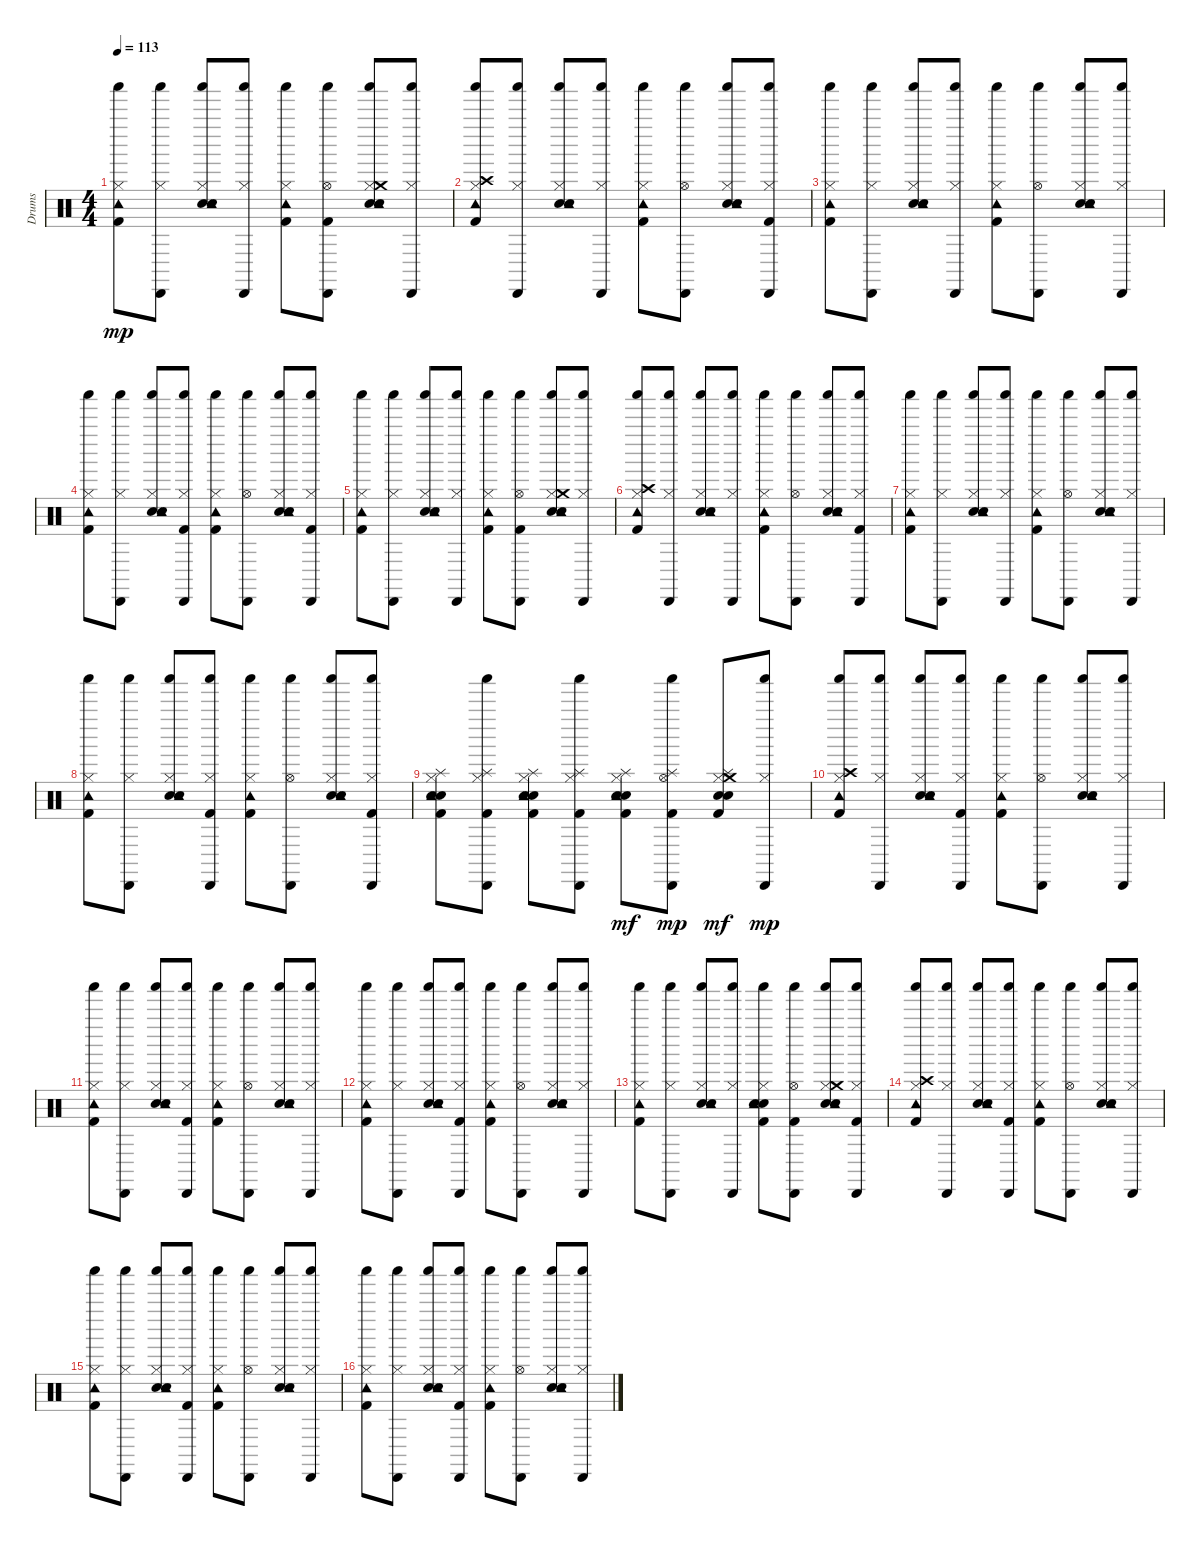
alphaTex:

\track ("Drums" "Drums") {instrument percussion}
\staff {score}
\articulation defaults
\ts (4 4)
\tempo 113
\clef neutral
\ks c
("Kick (hit) 2" "Hi-Hat (closed)" "Tambourine (hit)" "Shaker (hit)").8{dy mp} ("Hi-Hat (closed)" "Shaker (hit)" "Cabasa (hit)").8 ("Hand Clap (hit)" "Snare (hit) 2" "Hi-Hat (closed)" "Tambourine (hit)" "Shaker (hit)").8 ("Hi-Hat (closed)" "Shaker (hit)" "Cabasa (hit)").8 ("Kick (hit) 2" "Hi-Hat (closed)" "Tambourine (hit)" "Shaker (hit)").8 ("Kick (hit) 2" "Hi-Hat (open)" "Shaker (hit)" "Cabasa (hit)").8 ("Hand Clap (hit)" "Snare (hit) 2" "Hi-Hat (closed)" "Crash medium (hit)" "Tambourine (hit)" "Shaker (hit)").8 ("Hi-Hat (closed)" "Shaker (hit)" "Cabasa (hit)").8 |
("Kick (hit) 2" "Hi-Hat (closed)" "Crash high (hit)" "Tambourine (hit)" "Shaker (hit)").8 ("Hi-Hat (closed)" "Shaker (hit)" "Cabasa (hit)").8 ("Hand Clap (hit)" "Snare (hit) 2" "Hi-Hat (closed)" "Tambourine (hit)" "Shaker (hit)").8 ("Hi-Hat (closed)" "Shaker (hit)" "Cabasa (hit)").8 ("Kick (hit) 2" "Hi-Hat (closed)" "Tambourine (hit)" "Shaker (hit)").8 ("Hi-Hat (open)" "Shaker (hit)" "Cabasa (hit)").8 ("Hand Clap (hit)" "Snare (hit) 2" "Hi-Hat (closed)" "Tambourine (hit)" "Shaker (hit)").8 ("Hi-Hat (closed)" "Shaker (hit)" "Kick (hit) 2" "Cabasa (hit)").8 |
("Kick (hit) 2" "Hi-Hat (closed)" "Tambourine (hit)" "Shaker (hit)").8 ("Hi-Hat (closed)" "Shaker (hit)" "Cabasa (hit)").8 ("Hand Clap (hit)" "Snare (hit) 2" "Hi-Hat (closed)" "Tambourine (hit)" "Shaker (hit)").8 ("Hi-Hat (closed)" "Shaker (hit)" "Cabasa (hit)").8 ("Kick (hit) 2" "Hi-Hat (closed)" "Tambourine (hit)" "Shaker (hit)").8 ("Hi-Hat (open)" "Shaker (hit)" "Cabasa (hit)").8 ("Hand Clap (hit)" "Snare (hit) 2" "Hi-Hat (closed)" "Tambourine (hit)" "Shaker (hit)").8 ("Hi-Hat (closed)" "Shaker (hit)" "Cabasa (hit)").8 |
("Kick (hit) 2" "Hi-Hat (closed)" "Tambourine (hit)" "Shaker (hit)").8 ("Hi-Hat (closed)" "Shaker (hit)" "Cabasa (hit)").8 ("Hand Clap (hit)" "Snare (hit) 2" "Hi-Hat (closed)" "Tambourine (hit)" "Shaker (hit)").8 ("Hi-Hat (closed)" "Shaker (hit)" "Kick (hit) 2" "Cabasa (hit)").8 ("Kick (hit) 2" "Hi-Hat (closed)" "Tambourine (hit)" "Shaker (hit)").8 ("Hi-Hat (open)" "Shaker (hit)" "Cabasa (hit)").8 ("Hand Clap (hit)" "Snare (hit) 2" "Hi-Hat (closed)" "Tambourine (hit)" "Shaker (hit)").8 ("Hi-Hat (closed)" "Shaker (hit)" "Kick (hit) 2" "Cabasa (hit)").8 |
("Kick (hit) 2" "Hi-Hat (closed)" "Tambourine (hit)" "Shaker (hit)").8 ("Hi-Hat (closed)" "Shaker (hit)" "Cabasa (hit)").8 ("Hand Clap (hit)" "Snare (hit) 2" "Hi-Hat (closed)" "Tambourine (hit)" "Shaker (hit)").8 ("Hi-Hat (closed)" "Shaker (hit)" "Cabasa (hit)").8 ("Kick (hit) 2" "Hi-Hat (closed)" "Tambourine (hit)" "Shaker (hit)").8 ("Kick (hit) 2" "Hi-Hat (open)" "Shaker (hit)" "Cabasa (hit)").8 ("Hand Clap (hit)" "Snare (hit) 2" "Hi-Hat (closed)" "Crash medium (hit)" "Tambourine (hit)" "Shaker (hit)").8 ("Hi-Hat (closed)" "Shaker (hit)" "Cabasa (hit)").8 |
("Kick (hit) 2" "Hi-Hat (closed)" "Crash high (hit)" "Tambourine (hit)" "Shaker (hit)").8 ("Hi-Hat (closed)" "Shaker (hit)" "Cabasa (hit)").8 ("Hand Clap (hit)" "Snare (hit) 2" "Hi-Hat (closed)" "Tambourine (hit)" "Shaker (hit)").8 ("Hi-Hat (closed)" "Shaker (hit)" "Cabasa (hit)").8 ("Kick (hit) 2" "Hi-Hat (closed)" "Tambourine (hit)" "Shaker (hit)").8 ("Hi-Hat (open)" "Shaker (hit)" "Cabasa (hit)").8 ("Hand Clap (hit)" "Snare (hit) 2" "Hi-Hat (closed)" "Tambourine (hit)" "Shaker (hit)").8 ("Hi-Hat (closed)" "Shaker (hit)" "Kick (hit) 2" "Cabasa (hit)").8 |
("Kick (hit) 2" "Hi-Hat (closed)" "Tambourine (hit)" "Shaker (hit)").8 ("Hi-Hat (closed)" "Shaker (hit)" "Cabasa (hit)").8 ("Hand Clap (hit)" "Snare (hit) 2" "Hi-Hat (closed)" "Tambourine (hit)" "Shaker (hit)").8 ("Hi-Hat (closed)" "Shaker (hit)" "Cabasa (hit)").8 ("Kick (hit) 2" "Hi-Hat (closed)" "Tambourine (hit)" "Shaker (hit)").8 ("Hi-Hat (open)" "Shaker (hit)" "Cabasa (hit)").8 ("Hand Clap (hit)" "Snare (hit) 2" "Hi-Hat (closed)" "Tambourine (hit)" "Shaker (hit)").8 ("Hi-Hat (closed)" "Shaker (hit)" "Cabasa (hit)").8 |
("Kick (hit) 2" "Hi-Hat (closed)" "Tambourine (hit)" "Shaker (hit)").8 ("Hi-Hat (closed)" "Shaker (hit)" "Cabasa (hit)").8 ("Hand Clap (hit)" "Snare (hit) 2" "Hi-Hat (closed)" "Tambourine (hit)" "Shaker (hit)").8 ("Hi-Hat (closed)" "Shaker (hit)" "Kick (hit) 2" "Cabasa (hit)").8 ("Kick (hit) 2" "Hi-Hat (closed)" "Tambourine (hit)" "Shaker (hit)").8 ("Hi-Hat (open)" "Shaker (hit)" "Cabasa (hit)").8 ("Hand Clap (hit)" "Snare (hit) 2" "Hi-Hat (closed)" "Tambourine (hit)" "Shaker (hit)").8 ("Hi-Hat (closed)" "Shaker (hit)" "Kick (hit) 2" "Cabasa (hit)").8 |
("Kick (hit) 2" "Snare (hit) 2" "Hand Clap (hit)" "Hi-Hat (closed)" "Splash (hit)" "Tambourine (hit)").8 ("Hi-Hat (closed)" "Splash (hit)" "Shaker (hit)" "Kick (hit) 2" "Cabasa (hit)").8 ("Kick (hit) 2" "Snare (hit) 2" "Hand Clap (hit)" "Hi-Hat (closed)" "Splash (hit)" "Tambourine (hit)").8 ("Hi-Hat (closed)" "Splash (hit)" "Shaker (hit)" "Kick (hit) 2" "Cabasa (hit)").8 ("Kick (hit) 2" "Snare (hit) 2" "Hand Clap (hit)" "Hi-Hat (closed)" "Splash (hit)" "Tambourine (hit)").8{dy mf} ("Hi-Hat (open)" "Splash (hit)" "Shaker (hit)" "Kick (hit) 2" "Cabasa (hit)").8{dy mp} ("Kick (hit) 2" "Hand Clap (hit)" "Snare (hit) 2" "Hi-Hat (closed)" "Splash (hit)" "Crash medium (hit)").8{dy mf} ("Hi-Hat (closed)" "Shaker (hit)" "Cabasa (hit)").8{dy mp} |
("Kick (hit) 2" "Hi-Hat (closed)" "Crash high (hit)" "Tambourine (hit)" "Shaker (hit)").8 ("Hi-Hat (closed)" "Shaker (hit)" "Cabasa (hit)").8 ("Hand Clap (hit)" "Snare (hit) 2" "Hi-Hat (closed)" "Tambourine (hit)" "Shaker (hit)").8 ("Hi-Hat (closed)" "Shaker (hit)" "Kick (hit) 2" "Cabasa (hit)").8 ("Kick (hit) 2" "Hi-Hat (closed)" "Tambourine (hit)" "Shaker (hit)").8 ("Hi-Hat (open)" "Shaker (hit)" "Cabasa (hit)").8 ("Hand Clap (hit)" "Snare (hit) 2" "Hi-Hat (closed)" "Tambourine (hit)" "Shaker (hit)").8 ("Hi-Hat (closed)" "Shaker (hit)" "Cabasa (hit)").8 |
("Kick (hit) 2" "Hi-Hat (closed)" "Tambourine (hit)" "Shaker (hit)").8 ("Hi-Hat (closed)" "Shaker (hit)" "Cabasa (hit)").8 ("Hand Clap (hit)" "Snare (hit) 2" "Hi-Hat (closed)" "Tambourine (hit)" "Shaker (hit)").8 ("Hi-Hat (closed)" "Shaker (hit)" "Kick (hit) 2" "Cabasa (hit)").8 ("Kick (hit) 2" "Hi-Hat (closed)" "Tambourine (hit)" "Shaker (hit)").8 ("Hi-Hat (open)" "Shaker (hit)" "Cabasa (hit)").8 ("Hand Clap (hit)" "Snare (hit) 2" "Hi-Hat (closed)" "Tambourine (hit)" "Shaker (hit)").8 ("Hi-Hat (closed)" "Shaker (hit)" "Cabasa (hit)").8 |
("Kick (hit) 2" "Hi-Hat (closed)" "Tambourine (hit)" "Shaker (hit)").8 ("Hi-Hat (closed)" "Shaker (hit)" "Cabasa (hit)").8 ("Hand Clap (hit)" "Snare (hit) 2" "Hi-Hat (closed)" "Tambourine (hit)" "Shaker (hit)").8 ("Hi-Hat (closed)" "Shaker (hit)" "Kick (hit) 2" "Cabasa (hit)").8 ("Kick (hit) 2" "Hi-Hat (closed)" "Tambourine (hit)" "Shaker (hit)").8 ("Hi-Hat (open)" "Shaker (hit)" "Cabasa (hit)").8 ("Hand Clap (hit)" "Snare (hit) 2" "Hi-Hat (closed)" "Tambourine (hit)" "Shaker (hit)").8 ("Hi-Hat (closed)" "Shaker (hit)" "Cabasa (hit)").8 |
("Kick (hit) 2" "Hi-Hat (closed)" "Tambourine (hit)" "Shaker (hit)").8 ("Hi-Hat (closed)" "Shaker (hit)" "Cabasa (hit)").8 ("Hand Clap (hit)" "Snare (hit) 2" "Hi-Hat (closed)" "Tambourine (hit)" "Shaker (hit)").8 ("Hi-Hat (closed)" "Shaker (hit)" "Cabasa (hit)").8 ("Kick (hit) 2" "Hand Clap (hit)" "Snare (hit) 2" "Hi-Hat (closed)" "Tambourine (hit)" "Shaker (hit)").8 ("Kick (hit) 2" "Hi-Hat (open)" "Shaker (hit)" "Cabasa (hit)").8 ("Hand Clap (hit)" "Snare (hit) 2" "Hi-Hat (closed)" "Crash medium (hit)" "Tambourine (hit)" "Shaker (hit)").8 ("Kick (hit) 2" "Hi-Hat (closed)" "Shaker (hit)" "Cabasa (hit)").8 |
("Kick (hit) 2" "Hi-Hat (closed)" "Crash high (hit)" "Tambourine (hit)" "Shaker (hit)").8 ("Hi-Hat (closed)" "Shaker (hit)" "Cabasa (hit)").8 ("Hand Clap (hit)" "Snare (hit) 2" "Hi-Hat (closed)" "Tambourine (hit)" "Shaker (hit)").8 ("Hi-Hat (closed)" "Shaker (hit)" "Kick (hit) 2" "Cabasa (hit)").8 ("Kick (hit) 2" "Hi-Hat (closed)" "Tambourine (hit)" "Shaker (hit)").8 ("Hi-Hat (open)" "Shaker (hit)" "Cabasa (hit)").8 ("Hand Clap (hit)" "Snare (hit) 2" "Hi-Hat (closed)" "Tambourine (hit)" "Shaker (hit)").8 ("Hi-Hat (closed)" "Shaker (hit)" "Cabasa (hit)").8 |
("Kick (hit) 2" "Hi-Hat (closed)" "Tambourine (hit)" "Shaker (hit)").8 ("Hi-Hat (closed)" "Shaker (hit)" "Cabasa (hit)").8 ("Hand Clap (hit)" "Snare (hit) 2" "Hi-Hat (closed)" "Tambourine (hit)" "Shaker (hit)").8 ("Hi-Hat (closed)" "Shaker (hit)" "Kick (hit) 2" "Cabasa (hit)").8 ("Kick (hit) 2" "Hi-Hat (closed)" "Tambourine (hit)" "Shaker (hit)").8 ("Hi-Hat (open)" "Shaker (hit)" "Cabasa (hit)").8 ("Hand Clap (hit)" "Snare (hit) 2" "Hi-Hat (closed)" "Tambourine (hit)" "Shaker (hit)").8 ("Hi-Hat (closed)" "Shaker (hit)" "Cabasa (hit)").8 |
("Kick (hit) 2" "Hi-Hat (closed)" "Tambourine (hit)" "Shaker (hit)").8 ("Hi-Hat (closed)" "Shaker (hit)" "Cabasa (hit)").8 ("Hand Clap (hit)" "Snare (hit) 2" "Hi-Hat (closed)" "Tambourine (hit)" "Shaker (hit)").8 ("Hi-Hat (closed)" "Shaker (hit)" "Kick (hit) 2" "Cabasa (hit)").8 ("Kick (hit) 2" "Hi-Hat (closed)" "Tambourine (hit)" "Shaker (hit)").8 ("Hi-Hat (open)" "Shaker (hit)" "Cabasa (hit)").8 ("Hand Clap (hit)" "Snare (hit) 2" "Hi-Hat (closed)" "Tambourine (hit)" "Shaker (hit)").8 ("Hi-Hat (closed)" "Shaker (hit)" "Cabasa (hit)").8
